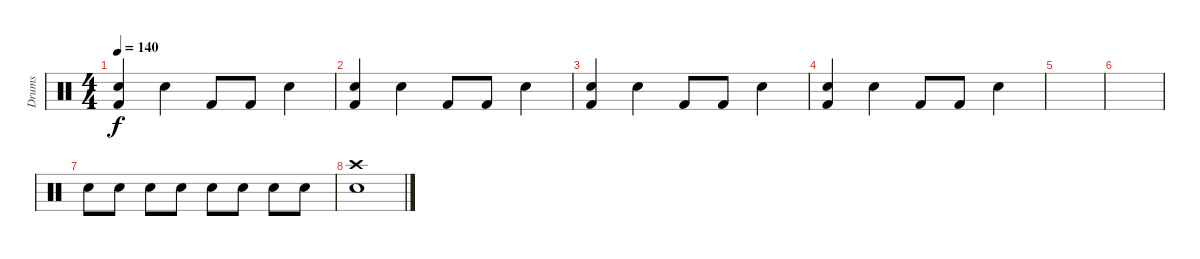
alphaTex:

\track ("Drums" "Drums") {instrument percussion}
\staff {score}
\articulation defaults
\ts (4 4)
\tempo 140
\clef neutral
\ks c
("Kick (hit) 2" "Snare (hit) 2").4{dy f} "Snare (hit) 2".4 "Kick (hit) 2".8 "Kick (hit) 2".8 "Snare (hit) 2".4 |
("Kick (hit) 2" "Snare (hit) 2").4 "Snare (hit) 2".4 "Kick (hit) 2".8 "Kick (hit) 2".8 "Snare (hit) 2".4 |
("Kick (hit) 2" "Snare (hit) 2").4 "Snare (hit) 2".4 "Kick (hit) 2".8 "Kick (hit) 2".8 "Snare (hit) 2".4 |
("Kick (hit) 2" "Snare (hit) 2").4 "Snare (hit) 2".4 "Kick (hit) 2".8 "Kick (hit) 2".8 "Snare (hit) 2".4 |
|
|
"Snare (hit) 2".8 "Snare (hit) 2".8 "Snare (hit) 2".8 "Snare (hit) 2".8 "Snare (hit) 2".8 "Snare (hit) 2".8 "Snare (hit) 2".8 "Snare (hit) 2".8 |
("Snare (hit) 2" "Crash high (hit)").1
